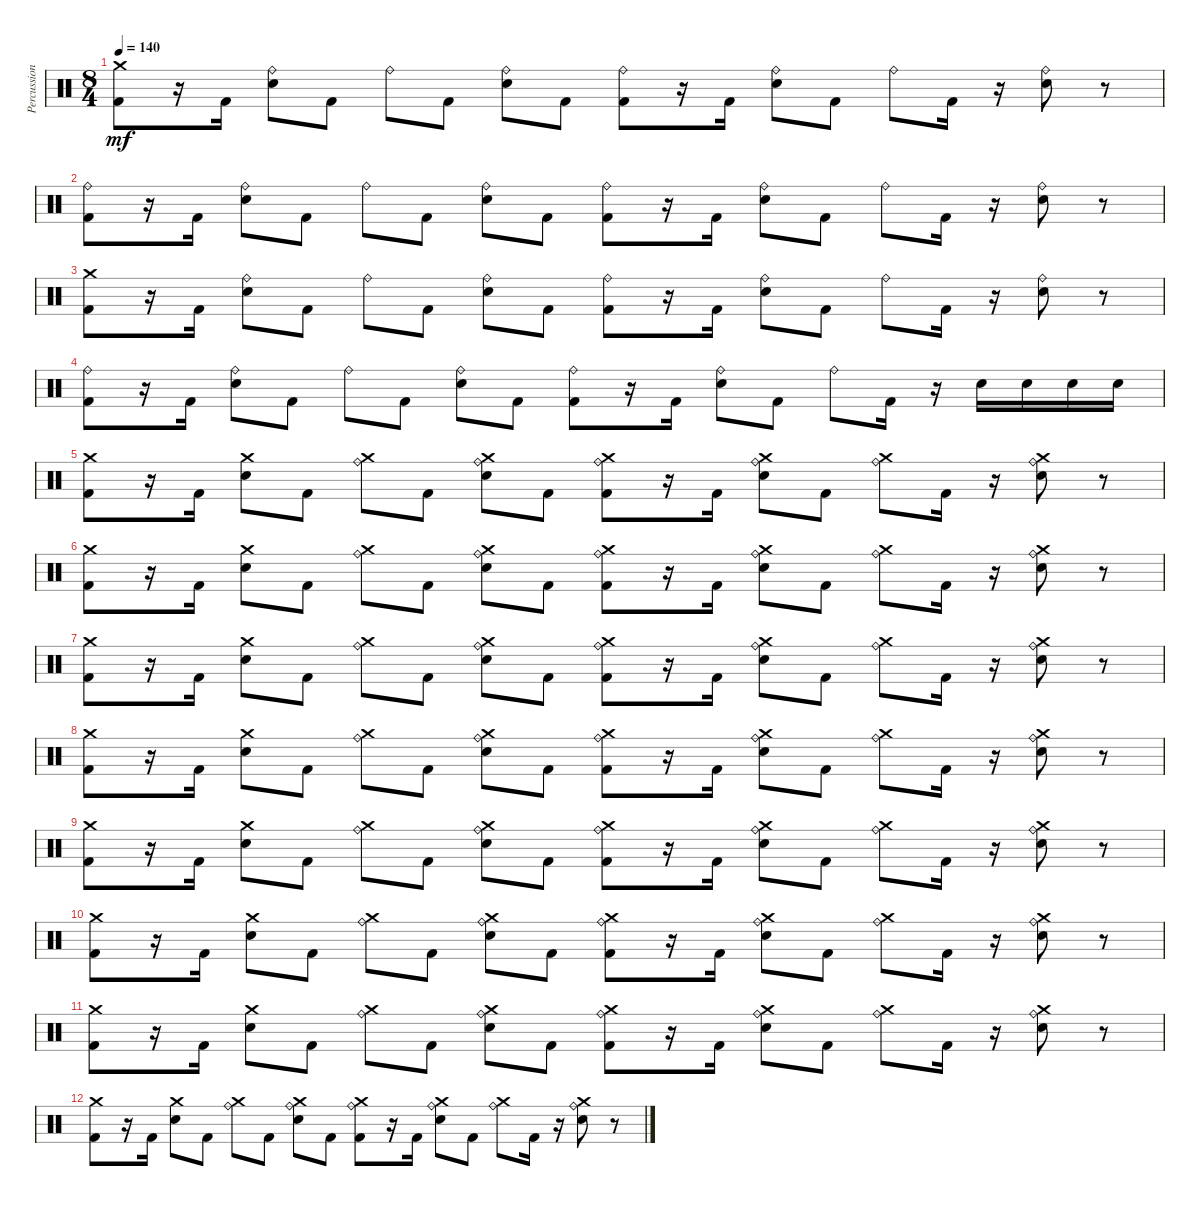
\track ("Percussion" "Percussion") {instrument percussion}
\staff {score}
\articulation defaults
\ts (8 4)
\tempo 140
\clef neutral
\ks c
("Crash medium (hit)" "Kick (hit) 2").8{dy mf} r.16 "Kick (hit) 2".16 ("Ride (bell)" "Electric Snare (hit)").8 "Kick (hit) 2".8 "Ride (bell)".8 "Kick (hit) 2".8 ("Ride (bell)" "Electric Snare (hit)").8 "Kick (hit) 2".8 ("Ride (bell)" "Kick (hit) 2").8 r.16 "Kick (hit) 2".16 ("Ride (bell)" "Electric Snare (hit)").8 "Kick (hit) 2".8 "Ride (bell)".8 "Kick (hit) 2".16 r.16 ("Ride (bell)" "Electric Snare (hit)").8 r.8 |
("Ride (bell)" "Kick (hit) 2").8 r.16 "Kick (hit) 2".16 ("Ride (bell)" "Electric Snare (hit)").8 "Kick (hit) 2".8 "Ride (bell)".8 "Kick (hit) 2".8 ("Ride (bell)" "Electric Snare (hit)").8 "Kick (hit) 2".8 ("Ride (bell)" "Kick (hit) 2").8 r.16 "Kick (hit) 2".16 ("Ride (bell)" "Electric Snare (hit)").8 "Kick (hit) 2".8 "Ride (bell)".8 "Kick (hit) 2".16 r.16 ("Ride (bell)" "Electric Snare (hit)").8 r.8 |
("Crash medium (hit)" "Kick (hit) 2").8 r.16 "Kick (hit) 2".16 ("Ride (bell)" "Electric Snare (hit)").8 "Kick (hit) 2".8 "Ride (bell)".8 "Kick (hit) 2".8 ("Ride (bell)" "Electric Snare (hit)").8 "Kick (hit) 2".8 ("Ride (bell)" "Kick (hit) 2").8 r.16 "Kick (hit) 2".16 ("Ride (bell)" "Electric Snare (hit)").8 "Kick (hit) 2".8 "Ride (bell)".8 "Kick (hit) 2".16 r.16 ("Ride (bell)" "Electric Snare (hit)").8 r.8 |
("Ride (bell)" "Kick (hit) 2").8 r.16 "Kick (hit) 2".16 ("Ride (bell)" "Electric Snare (hit)").8 "Kick (hit) 2".8 "Ride (bell)".8 "Kick (hit) 2".8 ("Ride (bell)" "Electric Snare (hit)").8 "Kick (hit) 2".8 ("Ride (bell)" "Kick (hit) 2").8 r.16 "Kick (hit) 2".16 ("Ride (bell)" "Electric Snare (hit)").8 "Kick (hit) 2".8 "Ride (bell)".8 "Kick (hit) 2".16 r.16 "Electric Snare (hit)".16 "Electric Snare (hit)".16 "Electric Snare (hit)".16 "Electric Snare (hit)".16 |
("Crash medium (hit)" "Kick (hit) 2").8 r.16 "Kick (hit) 2".16 ("Crash medium (hit)" "Electric Snare (hit)").8 "Kick (hit) 2".8 ("Crash medium (hit)" "Ride (bell)").8 "Kick (hit) 2".8 ("Crash medium (hit)" "Ride (bell)" "Electric Snare (hit)").8 "Kick (hit) 2".8 ("Crash medium (hit)" "Ride (bell)" "Kick (hit) 2").8 r.16 "Kick (hit) 2".16 ("Crash medium (hit)" "Ride (bell)" "Electric Snare (hit)").8 "Kick (hit) 2".8 ("Crash medium (hit)" "Ride (bell)").8 "Kick (hit) 2".16 r.16 ("Crash medium (hit)" "Ride (bell)" "Electric Snare (hit)").8 r.8 |
("Crash medium (hit)" "Kick (hit) 2").8 r.16 "Kick (hit) 2".16 ("Crash medium (hit)" "Electric Snare (hit)").8 "Kick (hit) 2".8 ("Crash medium (hit)" "Ride (bell)").8 "Kick (hit) 2".8 ("Crash medium (hit)" "Ride (bell)" "Electric Snare (hit)").8 "Kick (hit) 2".8 ("Crash medium (hit)" "Ride (bell)" "Kick (hit) 2").8 r.16 "Kick (hit) 2".16 ("Crash medium (hit)" "Ride (bell)" "Electric Snare (hit)").8 "Kick (hit) 2".8 ("Crash medium (hit)" "Ride (bell)").8 "Kick (hit) 2".16 r.16 ("Crash medium (hit)" "Ride (bell)" "Electric Snare (hit)").8 r.8 |
("Crash medium (hit)" "Kick (hit) 2").8 r.16 "Kick (hit) 2".16 ("Crash medium (hit)" "Electric Snare (hit)").8 "Kick (hit) 2".8 ("Crash medium (hit)" "Ride (bell)").8 "Kick (hit) 2".8 ("Crash medium (hit)" "Ride (bell)" "Electric Snare (hit)").8 "Kick (hit) 2".8 ("Crash medium (hit)" "Ride (bell)" "Kick (hit) 2").8 r.16 "Kick (hit) 2".16 ("Crash medium (hit)" "Ride (bell)" "Electric Snare (hit)").8 "Kick (hit) 2".8 ("Crash medium (hit)" "Ride (bell)").8 "Kick (hit) 2".16 r.16 ("Crash medium (hit)" "Ride (bell)" "Electric Snare (hit)").8 r.8 |
("Crash medium (hit)" "Kick (hit) 2").8 r.16 "Kick (hit) 2".16 ("Crash medium (hit)" "Electric Snare (hit)").8 "Kick (hit) 2".8 ("Crash medium (hit)" "Ride (bell)").8 "Kick (hit) 2".8 ("Crash medium (hit)" "Ride (bell)" "Electric Snare (hit)").8 "Kick (hit) 2".8 ("Crash medium (hit)" "Ride (bell)" "Kick (hit) 2").8 r.16 "Kick (hit) 2".16 ("Crash medium (hit)" "Ride (bell)" "Electric Snare (hit)").8 "Kick (hit) 2".8 ("Crash medium (hit)" "Ride (bell)").8 "Kick (hit) 2".16 r.16 ("Crash medium (hit)" "Ride (bell)" "Electric Snare (hit)").8 r.8 |
("Crash medium (hit)" "Kick (hit) 2").8 r.16 "Kick (hit) 2".16 ("Crash medium (hit)" "Electric Snare (hit)").8 "Kick (hit) 2".8 ("Crash medium (hit)" "Ride (bell)").8 "Kick (hit) 2".8 ("Crash medium (hit)" "Ride (bell)" "Electric Snare (hit)").8 "Kick (hit) 2".8 ("Crash medium (hit)" "Ride (bell)" "Kick (hit) 2").8 r.16 "Kick (hit) 2".16 ("Crash medium (hit)" "Ride (bell)" "Electric Snare (hit)").8 "Kick (hit) 2".8 ("Crash medium (hit)" "Ride (bell)").8 "Kick (hit) 2".16 r.16 ("Crash medium (hit)" "Ride (bell)" "Electric Snare (hit)").8 r.8 |
("Crash medium (hit)" "Kick (hit) 2").8 r.16 "Kick (hit) 2".16 ("Crash medium (hit)" "Electric Snare (hit)").8 "Kick (hit) 2".8 ("Crash medium (hit)" "Ride (bell)").8 "Kick (hit) 2".8 ("Crash medium (hit)" "Ride (bell)" "Electric Snare (hit)").8 "Kick (hit) 2".8 ("Crash medium (hit)" "Ride (bell)" "Kick (hit) 2").8 r.16 "Kick (hit) 2".16 ("Crash medium (hit)" "Ride (bell)" "Electric Snare (hit)").8 "Kick (hit) 2".8 ("Crash medium (hit)" "Ride (bell)").8 "Kick (hit) 2".16 r.16 ("Crash medium (hit)" "Ride (bell)" "Electric Snare (hit)").8 r.8 |
("Crash medium (hit)" "Kick (hit) 2").8 r.16 "Kick (hit) 2".16 ("Crash medium (hit)" "Electric Snare (hit)").8 "Kick (hit) 2".8 ("Crash medium (hit)" "Ride (bell)").8 "Kick (hit) 2".8 ("Crash medium (hit)" "Ride (bell)" "Electric Snare (hit)").8 "Kick (hit) 2".8 ("Crash medium (hit)" "Ride (bell)" "Kick (hit) 2").8 r.16 "Kick (hit) 2".16 ("Crash medium (hit)" "Ride (bell)" "Electric Snare (hit)").8 "Kick (hit) 2".8 ("Crash medium (hit)" "Ride (bell)").8 "Kick (hit) 2".16 r.16 ("Crash medium (hit)" "Ride (bell)" "Electric Snare (hit)").8 r.8 |
("Crash medium (hit)" "Kick (hit) 2").8 r.16 "Kick (hit) 2".16 ("Crash medium (hit)" "Electric Snare (hit)").8 "Kick (hit) 2".8 ("Crash medium (hit)" "Ride (bell)").8 "Kick (hit) 2".8 ("Crash medium (hit)" "Ride (bell)" "Electric Snare (hit)").8 "Kick (hit) 2".8 ("Crash medium (hit)" "Ride (bell)" "Kick (hit) 2").8 r.16 "Kick (hit) 2".16 ("Crash medium (hit)" "Ride (bell)" "Electric Snare (hit)").8 "Kick (hit) 2".8 ("Crash medium (hit)" "Ride (bell)").8 "Kick (hit) 2".16 r.16 ("Crash medium (hit)" "Ride (bell)" "Electric Snare (hit)").8 r.8
